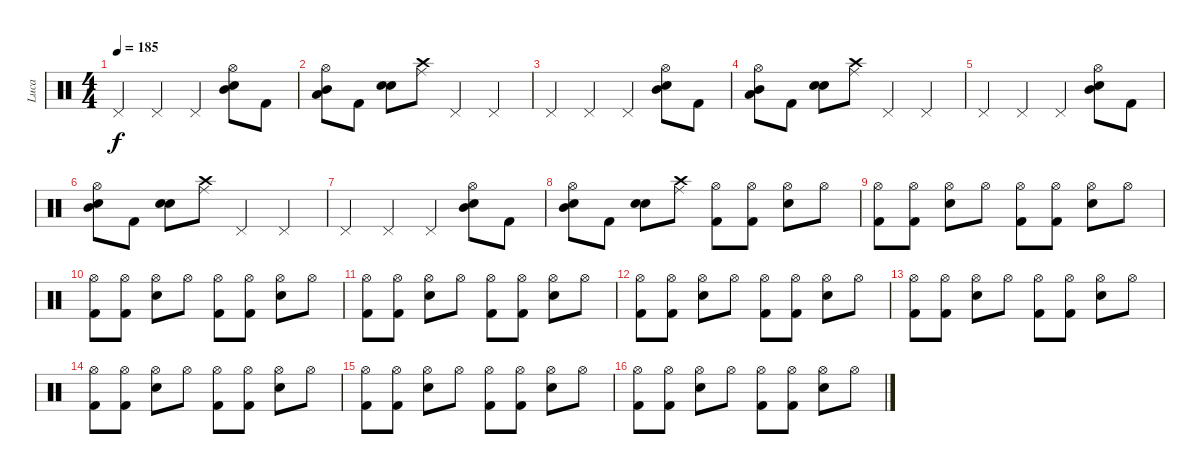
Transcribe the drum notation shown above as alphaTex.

\track ("Luca" "Luca") {instrument percussion}
\staff {score}
\articulation defaults
\ts (4 4)
\tempo 185
\clef neutral
\ks c "Pedal Hi-Hat (hit)".4{dy f} "Pedal Hi-Hat (hit)".4 "Pedal Hi-Hat (hit)".4
("Hi-Hat (open)" "Mid Tom (hit)" "Snare (hit) 2").8 "Kick (hit) 2".8 |
("Hi-Hat (open)" "Low Tom (hit)" "Mid Tom (hit)").8 "Kick (hit) 2".8 ("Snare (hit) 2" "Snare (hit) 2").8 ("Crash high (hit)" "Ride (middle)").8 "Pedal Hi-Hat (hit)".4 "Pedal Hi-Hat (hit)".4 |
"Pedal Hi-Hat (hit)".4 "Pedal Hi-Hat (hit)".4 "Pedal Hi-Hat (hit)".4 ("Hi-Hat (open)" "Mid Tom (hit)" "Snare (hit) 2").8 "Kick (hit) 2".8 |
("Hi-Hat (open)" "Low Tom (hit)" "Mid Tom (hit)").8 "Kick (hit) 2".8 ("Snare (hit) 2" "Snare (hit) 2").8 ("Crash high (hit)" "Ride (middle)").8 "Pedal Hi-Hat (hit)".4 "Pedal Hi-Hat (hit)".4 |
"Pedal Hi-Hat (hit)".4 "Pedal Hi-Hat (hit)".4 "Pedal Hi-Hat (hit)".4 ("Hi-Hat (open)" "Mid Tom (hit)" "Snare (hit) 2").8 "Kick (hit) 2".8 |
("Hi-Hat (open)" "Snare (hit) 2" "Mid Tom (hit)").8 "Kick (hit) 2".8 ("Snare (hit) 2" "Snare (hit) 2").8 ("Crash high (hit)" "Ride (middle)").8 "Pedal Hi-Hat (hit)".4 "Pedal Hi-Hat (hit)".4 |
"Pedal Hi-Hat (hit)".4 "Pedal Hi-Hat (hit)".4 "Pedal Hi-Hat (hit)".4 ("Hi-Hat (open)" "Mid Tom (hit)" "Snare (hit) 2").8 "Kick (hit) 2".8 |
("Hi-Hat (open)" "Snare (hit) 2" "Mid Tom (hit)").8 "Kick (hit) 2".8 ("Snare (hit) 2" "Snare (hit) 2").8 ("Crash high (hit)" "Ride (middle)").8 ("Hi-Hat (open)" "Kick (hit) 2").8 ("Hi-Hat (open)" "Kick (hit) 2").8 ("Hi-Hat (open)" "Snare (hit) 2").8 "Hi-Hat (open)".8 |
("Hi-Hat (open)" "Kick (hit) 2").8 ("Hi-Hat (open)" "Kick (hit) 2").8 ("Hi-Hat (open)" "Snare (hit) 2").8 "Hi-Hat (open)".8 ("Hi-Hat (open)" "Kick (hit) 2").8 ("Hi-Hat (open)" "Kick (hit) 2").8 ("Hi-Hat (open)" "Snare (hit) 2").8 "Hi-Hat (open)".8 |
("Hi-Hat (open)" "Kick (hit) 2").8 ("Hi-Hat (open)" "Kick (hit) 2").8 ("Hi-Hat (open)" "Snare (hit) 2").8 "Hi-Hat (open)".8 ("Hi-Hat (open)" "Kick (hit) 2").8 ("Hi-Hat (open)" "Kick (hit) 2").8 ("Hi-Hat (open)" "Snare (hit) 2").8 "Hi-Hat (open)".8 |
("Hi-Hat (open)" "Kick (hit) 2").8 ("Hi-Hat (open)" "Kick (hit) 2").8 ("Hi-Hat (open)" "Snare (hit) 2").8 "Hi-Hat (open)".8 ("Hi-Hat (open)" "Kick (hit) 2").8 ("Hi-Hat (open)" "Kick (hit) 2").8 ("Hi-Hat (open)" "Snare (hit) 2").8 "Hi-Hat (open)".8 |
("Hi-Hat (open)" "Kick (hit) 2").8 ("Hi-Hat (open)" "Kick (hit) 2").8 ("Hi-Hat (open)" "Snare (hit) 2").8 "Hi-Hat (open)".8 ("Hi-Hat (open)" "Kick (hit) 2").8 ("Hi-Hat (open)" "Kick (hit) 2").8 ("Hi-Hat (open)" "Snare (hit) 2").8 "Hi-Hat (open)".8 |
("Hi-Hat (open)" "Kick (hit) 2").8 ("Hi-Hat (open)" "Kick (hit) 2").8 ("Hi-Hat (open)" "Snare (hit) 2").8 "Hi-Hat (open)".8 ("Hi-Hat (open)" "Kick (hit) 2").8 ("Hi-Hat (open)" "Kick (hit) 2").8 ("Hi-Hat (open)" "Snare (hit) 2").8 "Hi-Hat (open)".8 |
("Hi-Hat (open)" "Kick (hit) 2").8 ("Hi-Hat (open)" "Kick (hit) 2").8 ("Hi-Hat (open)" "Snare (hit) 2").8 "Hi-Hat (open)".8 ("Hi-Hat (open)" "Kick (hit) 2").8 ("Hi-Hat (open)" "Kick (hit) 2").8 ("Hi-Hat (open)" "Snare (hit) 2").8 "Hi-Hat (open)".8 |
("Hi-Hat (open)" "Kick (hit) 2").8 ("Hi-Hat (open)" "Kick (hit) 2").8 ("Hi-Hat (open)" "Snare (hit) 2").8 "Hi-Hat (open)".8 ("Hi-Hat (open)" "Kick (hit) 2").8 ("Hi-Hat (open)" "Kick (hit) 2").8 ("Hi-Hat (open)" "Snare (hit) 2").8 "Hi-Hat (open)".8 |
("Hi-Hat (open)" "Kick (hit) 2").8 ("Hi-Hat (open)" "Kick (hit) 2").8 ("Hi-Hat (open)" "Snare (hit) 2").8 "Hi-Hat (open)".8 ("Hi-Hat (open)" "Kick (hit) 2").8 ("Hi-Hat (open)" "Kick (hit) 2").8 ("Hi-Hat (open)" "Snare (hit) 2").8 "Hi-Hat (open)".8
